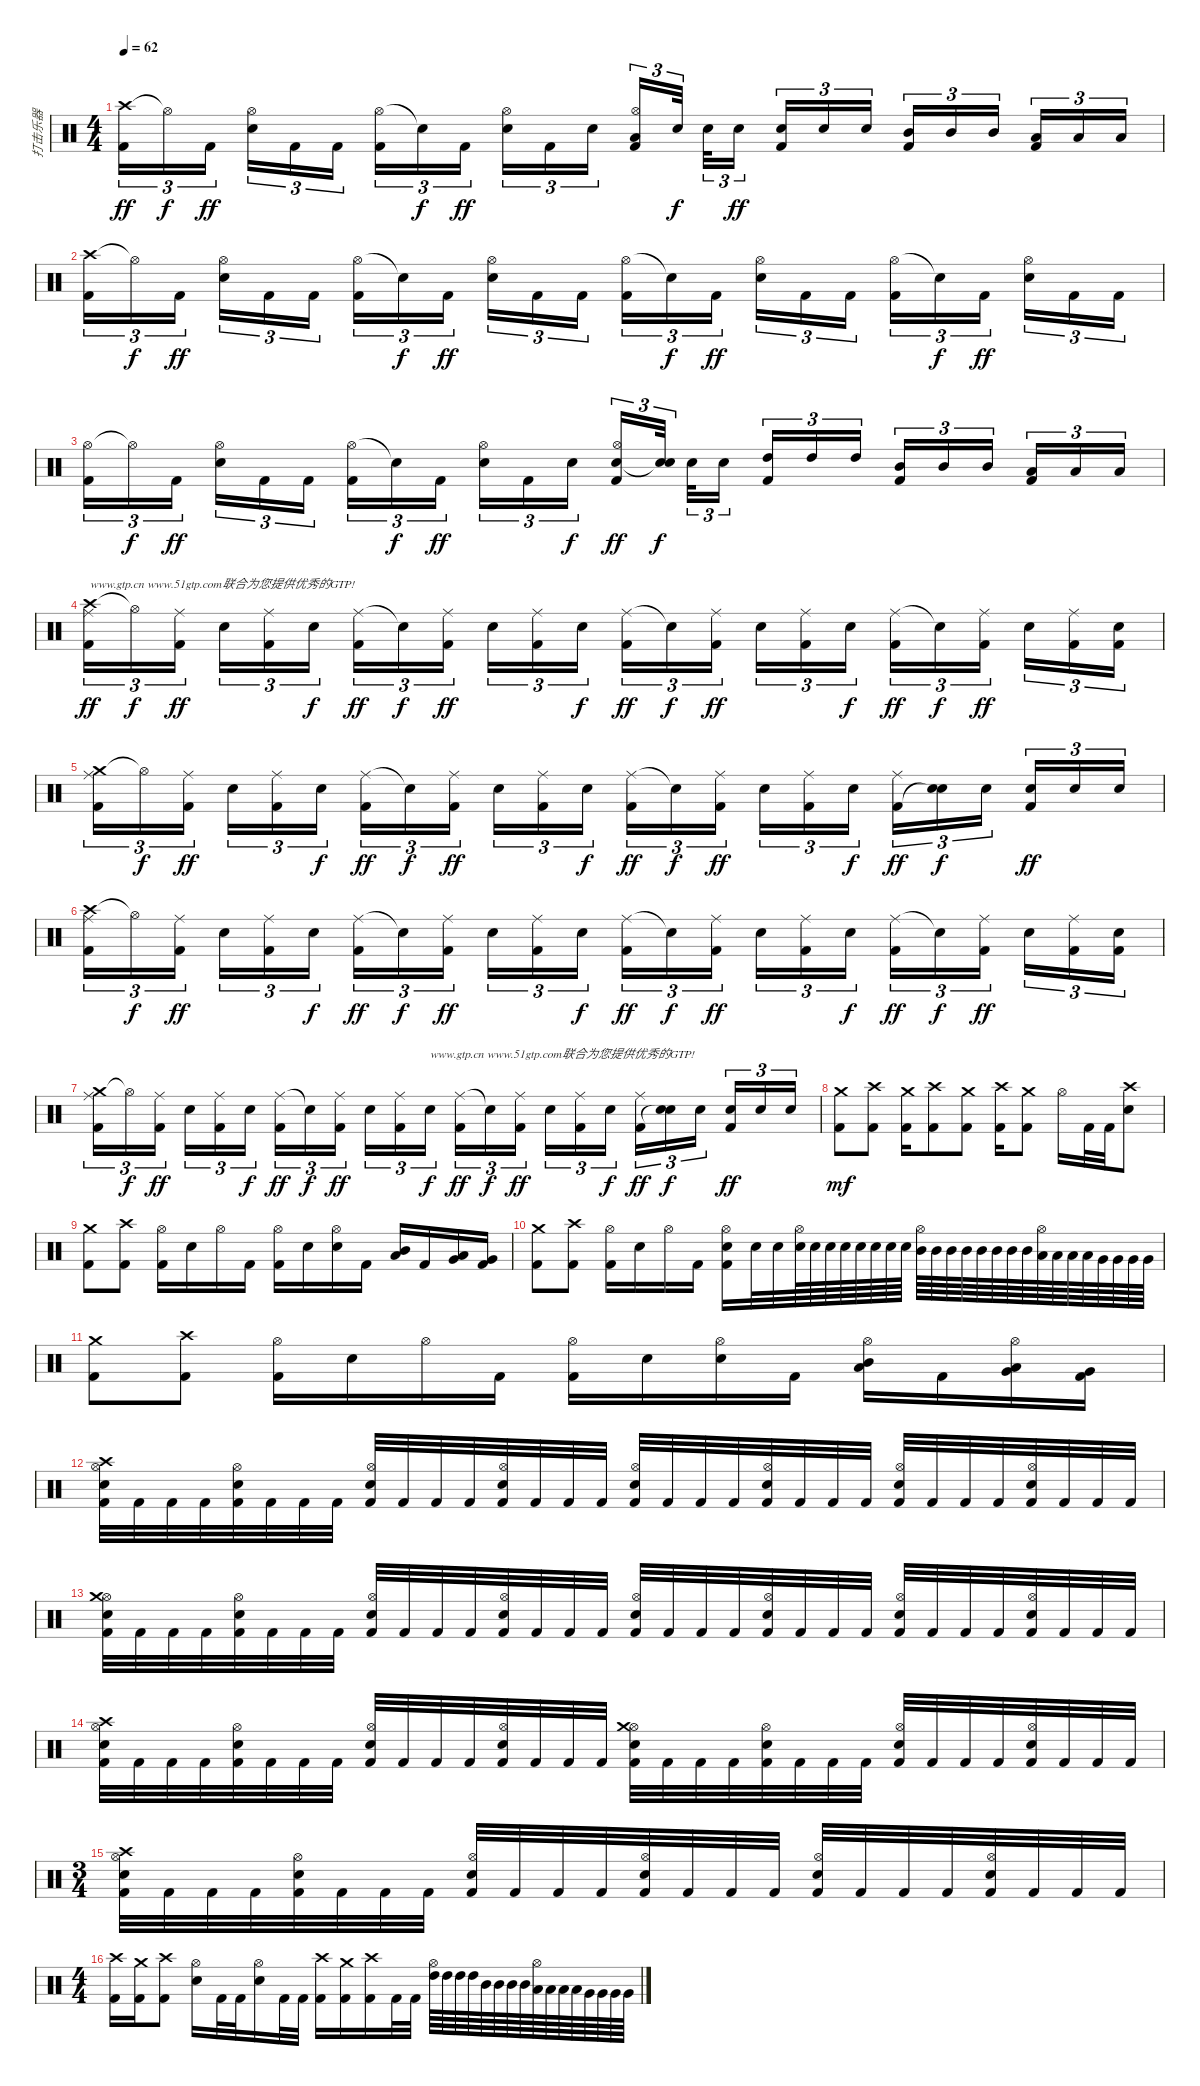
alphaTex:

\track ("打击乐器" "打击乐器") {instrument percussion}
\staff {score}
\articulation defaults
\ts (4 4)
\tempo 62
\clef neutral
\ks c
("Crash high (hit)" "Kick (hit) 2").16{tu (3 2) dy ff} "Hi-Hat (open)"{t}.16{tu (3 2) dy f} "Kick (hit) 2".16{tu (3 2) dy ff beam splitsecondary} ("Hi-Hat (open)" "Electric Snare (hit)").16{tu (3 2)} "Kick (hit) 2".16{tu (3 2)} "Kick (hit) 2".16{tu (3 2)} ("Hi-Hat (open)" "Kick (hit) 2").16{tu (3 2)} "Snare (hit)"{t}.16{tu (3 2) dy f} "Kick (hit) 2".16{tu (3 2) dy ff beam splitsecondary} ("Hi-Hat (open)" "Electric Snare (hit)").16{tu (3 2)} "Kick (hit) 2".16{tu (3 2)} "Electric Snare (hit)".16{tu (3 2)} ("Hi-Hat (open)" "Low Tom (hit)" "Kick (hit) 2").16{tu (3 2)} "Electric Snare (hit)".32{tu (3 2) dy f beam splitsecondary} "Electric Snare (hit)".32{tu (3 2)} "Electric Snare (hit)".16{tu (3 2) dy ff beam splitsecondary} ("Electric Snare (hit)" "Kick (hit) 2").16{tu (3 2)} "Electric Snare (hit)".16{tu (3 2)} "Electric Snare (hit)".16{tu (3 2)} ("Mid Tom (hit)" "Kick (hit) 2").16{tu (3 2)} "Mid Tom (hit)".16{tu (3 2)} "Mid Tom (hit)".16{tu (3 2) beam splitsecondary} ("Low Tom (hit)" "Kick (hit) 2").16{tu (3 2)} "Low Tom (hit)".16{tu (3 2)} "Low Tom (hit)".16{tu (3 2)} |
("Crash high (hit)" "Kick (hit) 2").16{tu (3 2)} "Hi-Hat (open)"{t}.16{tu (3 2) dy f} "Kick (hit) 2".16{tu (3 2) dy ff beam splitsecondary} ("Hi-Hat (open)" "Electric Snare (hit)").16{tu (3 2)} "Kick (hit) 2".16{tu (3 2)} "Kick (hit) 2".16{tu (3 2)} ("Hi-Hat (open)" "Kick (hit) 2").16{tu (3 2)} "Snare (hit)"{t}.16{tu (3 2) dy f} "Kick (hit) 2".16{tu (3 2) dy ff beam splitsecondary} ("Hi-Hat (open)" "Electric Snare (hit)").16{tu (3 2)} "Kick (hit) 2".16{tu (3 2)} "Kick (hit) 2".16{tu (3 2)} ("Hi-Hat (open)" "Kick (hit) 2").16{tu (3 2)} "Snare (hit)"{t}.16{tu (3 2) dy f} "Kick (hit) 2".16{tu (3 2) dy ff beam splitsecondary} ("Hi-Hat (open)" "Electric Snare (hit)").16{tu (3 2)} "Kick (hit) 2".16{tu (3 2)} "Kick (hit) 2".16{tu (3 2)} ("Hi-Hat (open)" "Kick (hit) 2").16{tu (3 2)} "Snare (hit)"{t}.16{tu (3 2) dy f} "Kick (hit) 2".16{tu (3 2) dy ff beam splitsecondary} ("Hi-Hat (open)" "Electric Snare (hit)").16{tu (3 2)} "Kick (hit) 2".16{tu (3 2)} "Kick (hit) 2".16{tu (3 2)} |
("Hi-Hat (open)" "Kick (hit) 2").16{tu (3 2)} "Hi-Hat (open)"{t}.16{tu (3 2) dy f} "Kick (hit) 2".16{tu (3 2) dy ff beam splitsecondary} ("Hi-Hat (open)" "Electric Snare (hit)").16{tu (3 2)} "Kick (hit) 2".16{tu (3 2)} "Kick (hit) 2".16{tu (3 2)} ("Hi-Hat (open)" "Kick (hit) 2").16{tu (3 2)} "Snare (hit)"{t}.16{tu (3 2) dy f} "Kick (hit) 2".16{tu (3 2) dy ff beam splitsecondary} ("Hi-Hat (open)" "Electric Snare (hit)").16{tu (3 2)} "Kick (hit) 2".16{tu (3 2)} "Electric Snare (hit)".16{tu (3 2) dy f} ("Hi-Hat (open)" "Electric Snare (hit)" "Kick (hit) 2").16{tu (3 2) dy ff} ("Electric Snare (hit)" "Snare (hit)"{t}).32{tu (3 2) dy f beam splitsecondary} "Electric Snare (hit)".32{tu (3 2)} "Electric Snare (hit)".16{tu (3 2) beam splitsecondary} ("High Tom (hit)" "Kick (hit) 2").16{tu (3 2)} "High Tom (hit)".16{tu (3 2)} "High Tom (hit)".16{tu (3 2)} ("Mid Tom (hit)" "Kick (hit) 2").16{tu (3 2)} "Mid Tom (hit)".16{tu (3 2)} "Mid Tom (hit)".16{tu (3 2) beam splitsecondary} ("Low Tom (hit)" "Kick (hit) 2").16{tu (3 2)} "Low Tom (hit)".16{tu (3 2)} "Low Tom (hit)".16{tu (3 2)} |
("Crash high (hit)" "Ride (middle)" "Kick (hit) 2").16{tu (3 2) txt "www.gtp.cn www.51gtp.com联合为您提供优秀的GTP!" dy ff} "Hi-Hat (open)"{t}.16{tu (3 2) dy f} ("Ride (middle)" "Kick (hit) 2").16{tu (3 2) dy ff beam splitsecondary} "Electric Snare (hit)".16{tu (3 2)} ("Ride (middle)" "Kick (hit) 2").16{tu (3 2)} "Electric Snare (hit)".16{tu (3 2) dy f} ("Ride (middle)" "Kick (hit) 2").16{tu (3 2) dy ff} "Snare (hit)"{t}.16{tu (3 2) dy f} ("Ride (middle)" "Kick (hit) 2").16{tu (3 2) dy ff beam splitsecondary} "Electric Snare (hit)".16{tu (3 2)} ("Ride (middle)" "Kick (hit) 2").16{tu (3 2)} "Electric Snare (hit)".16{tu (3 2) dy f} ("Ride (middle)" "Kick (hit) 2").16{tu (3 2) dy ff} "Snare (hit)"{t}.16{tu (3 2) dy f} ("Ride (middle)" "Kick (hit) 2").16{tu (3 2) dy ff beam splitsecondary} "Electric Snare (hit)".16{tu (3 2)} ("Ride (middle)" "Kick (hit) 2").16{tu (3 2)} "Electric Snare (hit)".16{tu (3 2) dy f} ("Ride (middle)" "Kick (hit) 2").16{tu (3 2) dy ff} "Snare (hit)"{t}.16{tu (3 2) dy f} ("Ride (middle)" "Kick (hit) 2").16{tu (3 2) dy ff beam splitsecondary} "Electric Snare (hit)".16{tu (3 2)} ("Ride (middle)" "Kick (hit) 2").16{tu (3 2)} ("Electric Snare (hit)" "Kick (hit) 2").16{tu (3 2)} |
("Crash medium (hit)" "Ride (middle)" "Kick (hit) 2").16{tu (3 2)} "Hi-Hat (open)"{t}.16{tu (3 2) dy f} ("Ride (middle)" "Kick (hit) 2").16{tu (3 2) dy ff beam splitsecondary} "Electric Snare (hit)".16{tu (3 2)} ("Ride (middle)" "Kick (hit) 2").16{tu (3 2)} "Electric Snare (hit)".16{tu (3 2) dy f} ("Ride (middle)" "Kick (hit) 2").16{tu (3 2) dy ff} "Snare (hit)"{t}.16{tu (3 2) dy f} ("Ride (middle)" "Kick (hit) 2").16{tu (3 2) dy ff beam splitsecondary} "Electric Snare (hit)".16{tu (3 2)} ("Ride (middle)" "Kick (hit) 2").16{tu (3 2)} "Electric Snare (hit)".16{tu (3 2) dy f} ("Ride (middle)" "Kick (hit) 2").16{tu (3 2) dy ff} "Snare (hit)"{t}.16{tu (3 2) dy f} ("Ride (middle)" "Kick (hit) 2").16{tu (3 2) dy ff beam splitsecondary} "Electric Snare (hit)".16{tu (3 2)} ("Ride (middle)" "Kick (hit) 2").16{tu (3 2)} "Electric Snare (hit)".16{tu (3 2) dy f} ("Ride (middle)" "Kick (hit) 2").16{tu (3 2) dy ff} ("Electric Snare (hit)" "Snare (hit)"{t}).16{tu (3 2) dy f} "Electric Snare (hit)".16{tu (3 2) beam splitsecondary} ("Electric Snare (hit)" "Kick (hit) 2").16{tu (3 2) dy ff} "Electric Snare (hit)".16{tu (3 2)} "Electric Snare (hit)".16{tu (3 2)} |
("Crash high (hit)" "Ride (middle)" "Kick (hit) 2").16{tu (3 2)} "Hi-Hat (open)"{t}.16{tu (3 2) dy f} ("Ride (middle)" "Kick (hit) 2").16{tu (3 2) dy ff beam splitsecondary} "Electric Snare (hit)".16{tu (3 2)} ("Ride (middle)" "Kick (hit) 2").16{tu (3 2)} "Electric Snare (hit)".16{tu (3 2) dy f} ("Ride (middle)" "Kick (hit) 2").16{tu (3 2) dy ff} "Snare (hit)"{t}.16{tu (3 2) dy f} ("Ride (middle)" "Kick (hit) 2").16{tu (3 2) dy ff beam splitsecondary} "Electric Snare (hit)".16{tu (3 2)} ("Ride (middle)" "Kick (hit) 2").16{tu (3 2)} "Electric Snare (hit)".16{tu (3 2) dy f} ("Ride (middle)" "Kick (hit) 2").16{tu (3 2) dy ff} "Snare (hit)"{t}.16{tu (3 2) dy f} ("Ride (middle)" "Kick (hit) 2").16{tu (3 2) dy ff beam splitsecondary} "Electric Snare (hit)".16{tu (3 2)} ("Ride (middle)" "Kick (hit) 2").16{tu (3 2)} "Electric Snare (hit)".16{tu (3 2) dy f} ("Ride (middle)" "Kick (hit) 2").16{tu (3 2) dy ff} "Snare (hit)"{t}.16{tu (3 2) dy f} ("Ride (middle)" "Kick (hit) 2").16{tu (3 2) dy ff beam splitsecondary} "Electric Snare (hit)".16{tu (3 2)} ("Ride (middle)" "Kick (hit) 2").16{tu (3 2)} ("Electric Snare (hit)" "Kick (hit) 2").16{tu (3 2)} |
("Crash medium (hit)" "Ride (middle)" "Kick (hit) 2").16{tu (3 2)} "Hi-Hat (open)"{t}.16{tu (3 2) dy f} ("Ride (middle)" "Kick (hit) 2").16{tu (3 2) dy ff beam splitsecondary} "Electric Snare (hit)".16{tu (3 2)} ("Ride (middle)" "Kick (hit) 2").16{tu (3 2)} "Electric Snare (hit)".16{tu (3 2) dy f} ("Ride (middle)" "Kick (hit) 2").16{tu (3 2) dy ff} "Snare (hit)"{t}.16{tu (3 2) dy f} ("Ride (middle)" "Kick (hit) 2").16{tu (3 2) dy ff beam splitsecondary} "Electric Snare (hit)".16{tu (3 2)} ("Ride (middle)" "Kick (hit) 2").16{tu (3 2)} "Electric Snare (hit)".16{tu (3 2) txt "www.gtp.cn www.51gtp.com联合为您提供优秀的GTP!" dy f} ("Ride (middle)" "Kick (hit) 2").16{tu (3 2) dy ff} "Snare (hit)"{t}.16{tu (3 2) dy f} ("Ride (middle)" "Kick (hit) 2").16{tu (3 2) dy ff beam splitsecondary} "Electric Snare (hit)".16{tu (3 2)} ("Ride (middle)" "Kick (hit) 2").16{tu (3 2)} "Electric Snare (hit)".16{tu (3 2) dy f} ("Ride (middle)" "Kick (hit) 2").16{tu (3 2) dy ff} ("Electric Snare (hit)" "Snare (hit)"{t}).16{tu (3 2) dy f} "Electric Snare (hit)".16{tu (3 2) beam splitsecondary} ("Electric Snare (hit)" "Kick (hit) 2").16{tu (3 2) dy ff} "Electric Snare (hit)".16{tu (3 2)} "Electric Snare (hit)".16{tu (3 2)} |
("Crash medium (hit)" "Kick (hit) 2").8{dy mf} ("Crash high (hit)" "Kick (hit) 2").8 ("Crash medium (hit)" "Kick (hit) 2").16 ("Crash high (hit)" "Kick (hit) 2").8 ("Crash medium (hit)" "Kick (hit) 2").8 ("Crash high (hit)" "Kick (hit) 2").16 ("Crash medium (hit)" "Kick (hit) 2").8 "Hi-Hat (open)".16 "Kick (hit) 2".32 "Kick (hit) 2".32 ("Crash high (hit)" "Electric Snare (hit)").8 |
("Crash medium (hit)" "Kick (hit) 2").8 ("Crash high (hit)" "Kick (hit) 2").8 ("Hi-Hat (open)" "Kick (hit) 2").16 "Electric Snare (hit)".16 "Hi-Hat (open)".16 "Kick (hit) 2".16 ("Hi-Hat (open)" "Kick (hit) 2").16 "Electric Snare (hit)".16 ("Hi-Hat (open)" "Electric Snare (hit)").16 "Kick (hit) 2".16 ("Mid Tom (hit)" "Low Tom (hit)").16 "Kick (hit) 2".16 ("Low Tom (hit)" "Very Low Tom (hit)").16 ("Very Low Tom (hit)" "Kick (hit) 2").16 |
("Crash medium (hit)" "Kick (hit) 2").8 ("Crash high (hit)" "Kick (hit) 2").8 ("Hi-Hat (open)" "Kick (hit) 2").16 "Electric Snare (hit)".16 "Hi-Hat (open)".16 "Kick (hit) 2".16 ("Hi-Hat (open)" "Electric Snare (hit)" "Kick (hit) 2").16 "Electric Snare (hit)".32 "Electric Snare (hit)".32 ("Hi-Hat (open)" "Electric Snare (hit)").64 "Electric Snare (hit)".64 "Electric Snare (hit)".64 "Electric Snare (hit)".64 "Electric Snare (hit)".64 "Electric Snare (hit)".64 "Electric Snare (hit)".64 "Electric Snare (hit)".64 ("Hi-Hat (open)" "Mid Tom (hit)").64 "Mid Tom (hit)".64 "Mid Tom (hit)".64 "Mid Tom (hit)".64 "Mid Tom (hit)".64 "Mid Tom (hit)".64 "Mid Tom (hit)".64 "Mid Tom (hit)".64 ("Hi-Hat (open)" "Low Tom (hit)").64 "Low Tom (hit)".64 "Low Tom (hit)".64 "Low Tom (hit)".64 "Very Low Tom (hit)".64 "Very Low Tom (hit)".64 "Very Low Tom (hit)".64 "Very Low Tom (hit)".64 |
("Crash medium (hit)" "Kick (hit) 2").8 ("Crash high (hit)" "Kick (hit) 2").8 ("Hi-Hat (open)" "Kick (hit) 2").16 "Electric Snare (hit)".16 "Hi-Hat (open)".16 "Kick (hit) 2".16 ("Hi-Hat (open)" "Kick (hit) 2").16 "Electric Snare (hit)".16 ("Hi-Hat (open)" "Electric Snare (hit)").16 "Kick (hit) 2".16 ("Hi-Hat (open)" "Mid Tom (hit)" "Low Tom (hit)").16 "Kick (hit) 2".16 ("Hi-Hat (open)" "Low Tom (hit)" "Very Low Tom (hit)").16 ("Very Low Tom (hit)" "Kick (hit) 2").16 |
("Hi-Hat (open)" "Electric Snare (hit)" "Crash high (hit)" "Kick (hit) 2").32 "Kick (hit) 2".32 "Kick (hit) 2".32 "Kick (hit) 2".32 ("Hi-Hat (open)" "Electric Snare (hit)" "Kick (hit) 2").32 "Kick (hit) 2".32 "Kick (hit) 2".32 "Kick (hit) 2".32 ("Hi-Hat (open)" "Electric Snare (hit)" "Kick (hit) 2").32 "Kick (hit) 2".32 "Kick (hit) 2".32 "Kick (hit) 2".32 ("Hi-Hat (open)" "Electric Snare (hit)" "Kick (hit) 2").32 "Kick (hit) 2".32 "Kick (hit) 2".32 "Kick (hit) 2".32 ("Hi-Hat (open)" "Electric Snare (hit)" "Kick (hit) 2").32 "Kick (hit) 2".32 "Kick (hit) 2".32 "Kick (hit) 2".32 ("Hi-Hat (open)" "Electric Snare (hit)" "Kick (hit) 2").32 "Kick (hit) 2".32 "Kick (hit) 2".32 "Kick (hit) 2".32 ("Hi-Hat (open)" "Electric Snare (hit)" "Kick (hit) 2").32 "Kick (hit) 2".32 "Kick (hit) 2".32 "Kick (hit) 2".32 ("Hi-Hat (open)" "Electric Snare (hit)" "Kick (hit) 2").32 "Kick (hit) 2".32 "Kick (hit) 2".32 "Kick (hit) 2".32 |
("Hi-Hat (open)" "Electric Snare (hit)" "Crash medium (hit)" "Kick (hit) 2").32 "Kick (hit) 2".32 "Kick (hit) 2".32 "Kick (hit) 2".32 ("Hi-Hat (open)" "Electric Snare (hit)" "Kick (hit) 2").32 "Kick (hit) 2".32 "Kick (hit) 2".32 "Kick (hit) 2".32 ("Hi-Hat (open)" "Electric Snare (hit)" "Kick (hit) 2").32 "Kick (hit) 2".32 "Kick (hit) 2".32 "Kick (hit) 2".32 ("Hi-Hat (open)" "Electric Snare (hit)" "Kick (hit) 2").32 "Kick (hit) 2".32 "Kick (hit) 2".32 "Kick (hit) 2".32 ("Hi-Hat (open)" "Electric Snare (hit)" "Kick (hit) 2").32 "Kick (hit) 2".32 "Kick (hit) 2".32 "Kick (hit) 2".32 ("Hi-Hat (open)" "Electric Snare (hit)" "Kick (hit) 2").32 "Kick (hit) 2".32 "Kick (hit) 2".32 "Kick (hit) 2".32 ("Hi-Hat (open)" "Electric Snare (hit)" "Kick (hit) 2").32 "Kick (hit) 2".32 "Kick (hit) 2".32 "Kick (hit) 2".32 ("Hi-Hat (open)" "Electric Snare (hit)" "Kick (hit) 2").32 "Kick (hit) 2".32 "Kick (hit) 2".32 "Kick (hit) 2".32 |
("Hi-Hat (open)" "Electric Snare (hit)" "Crash high (hit)" "Kick (hit) 2").32 "Kick (hit) 2".32 "Kick (hit) 2".32 "Kick (hit) 2".32 ("Hi-Hat (open)" "Electric Snare (hit)" "Kick (hit) 2").32 "Kick (hit) 2".32 "Kick (hit) 2".32 "Kick (hit) 2".32 ("Hi-Hat (open)" "Electric Snare (hit)" "Kick (hit) 2").32 "Kick (hit) 2".32 "Kick (hit) 2".32 "Kick (hit) 2".32 ("Hi-Hat (open)" "Electric Snare (hit)" "Kick (hit) 2").32 "Kick (hit) 2".32 "Kick (hit) 2".32 "Kick (hit) 2".32 ("Hi-Hat (open)" "Electric Snare (hit)" "Crash medium (hit)" "Kick (hit) 2").32 "Kick (hit) 2".32 "Kick (hit) 2".32 "Kick (hit) 2".32 ("Hi-Hat (open)" "Electric Snare (hit)" "Kick (hit) 2").32 "Kick (hit) 2".32 "Kick (hit) 2".32 "Kick (hit) 2".32 ("Hi-Hat (open)" "Electric Snare (hit)" "Kick (hit) 2").32 "Kick (hit) 2".32 "Kick (hit) 2".32 "Kick (hit) 2".32 ("Hi-Hat (open)" "Electric Snare (hit)" "Kick (hit) 2").32 "Kick (hit) 2".32 "Kick (hit) 2".32 "Kick (hit) 2".32 |
\ts (3 4)
("Hi-Hat (open)" "Electric Snare (hit)" "Crash high (hit)" "Kick (hit) 2").32 "Kick (hit) 2".32 "Kick (hit) 2".32 "Kick (hit) 2".32 ("Hi-Hat (open)" "Electric Snare (hit)" "Kick (hit) 2").32 "Kick (hit) 2".32 "Kick (hit) 2".32 "Kick (hit) 2".32 ("Hi-Hat (open)" "Electric Snare (hit)" "Kick (hit) 2").32 "Kick (hit) 2".32 "Kick (hit) 2".32 "Kick (hit) 2".32 ("Hi-Hat (open)" "Electric Snare (hit)" "Kick (hit) 2").32 "Kick (hit) 2".32 "Kick (hit) 2".32 "Kick (hit) 2".32 ("Hi-Hat (open)" "Electric Snare (hit)" "Kick (hit) 2").32 "Kick (hit) 2".32 "Kick (hit) 2".32 "Kick (hit) 2".32 ("Hi-Hat (open)" "Electric Snare (hit)" "Kick (hit) 2").32 "Kick (hit) 2".32 "Kick (hit) 2".32 "Kick (hit) 2".32 |
\ts (4 4)
("Crash high (hit)" "Kick (hit) 2").16 ("Crash medium (hit)" "Kick (hit) 2").16 ("Crash high (hit)" "Kick (hit) 2").8 ("Hi-Hat (open)" "Electric Snare (hit)").16 "Kick (hit) 2".32 "Kick (hit) 2".32 ("Hi-Hat (open)" "Electric Snare (hit)").16 "Kick (hit) 2".32 "Kick (hit) 2".32 ("Crash high (hit)" "Kick (hit) 2").16 ("Crash medium (hit)" "Kick (hit) 2").16 ("Crash high (hit)" "Kick (hit) 2").16 "Kick (hit) 2".32 "Kick (hit) 2".32 ("Hi-Hat (open)" "High Tom (hit)").64 "High Tom (hit)".64 "High Tom (hit)".64 "High Tom (hit)".64 "Mid Tom (hit)".64 "Mid Tom (hit)".64 "Mid Tom (hit)".64 "Mid Tom (hit)".64 ("Hi-Hat (open)" "Low Tom (hit)").64 "Low Tom (hit)".64 "Low Tom (hit)".64 "Low Tom (hit)".64 "Very Low Tom (hit)".64 "Very Low Tom (hit)".64 "Very Low Tom (hit)".64 "Very Low Tom (hit)".64
